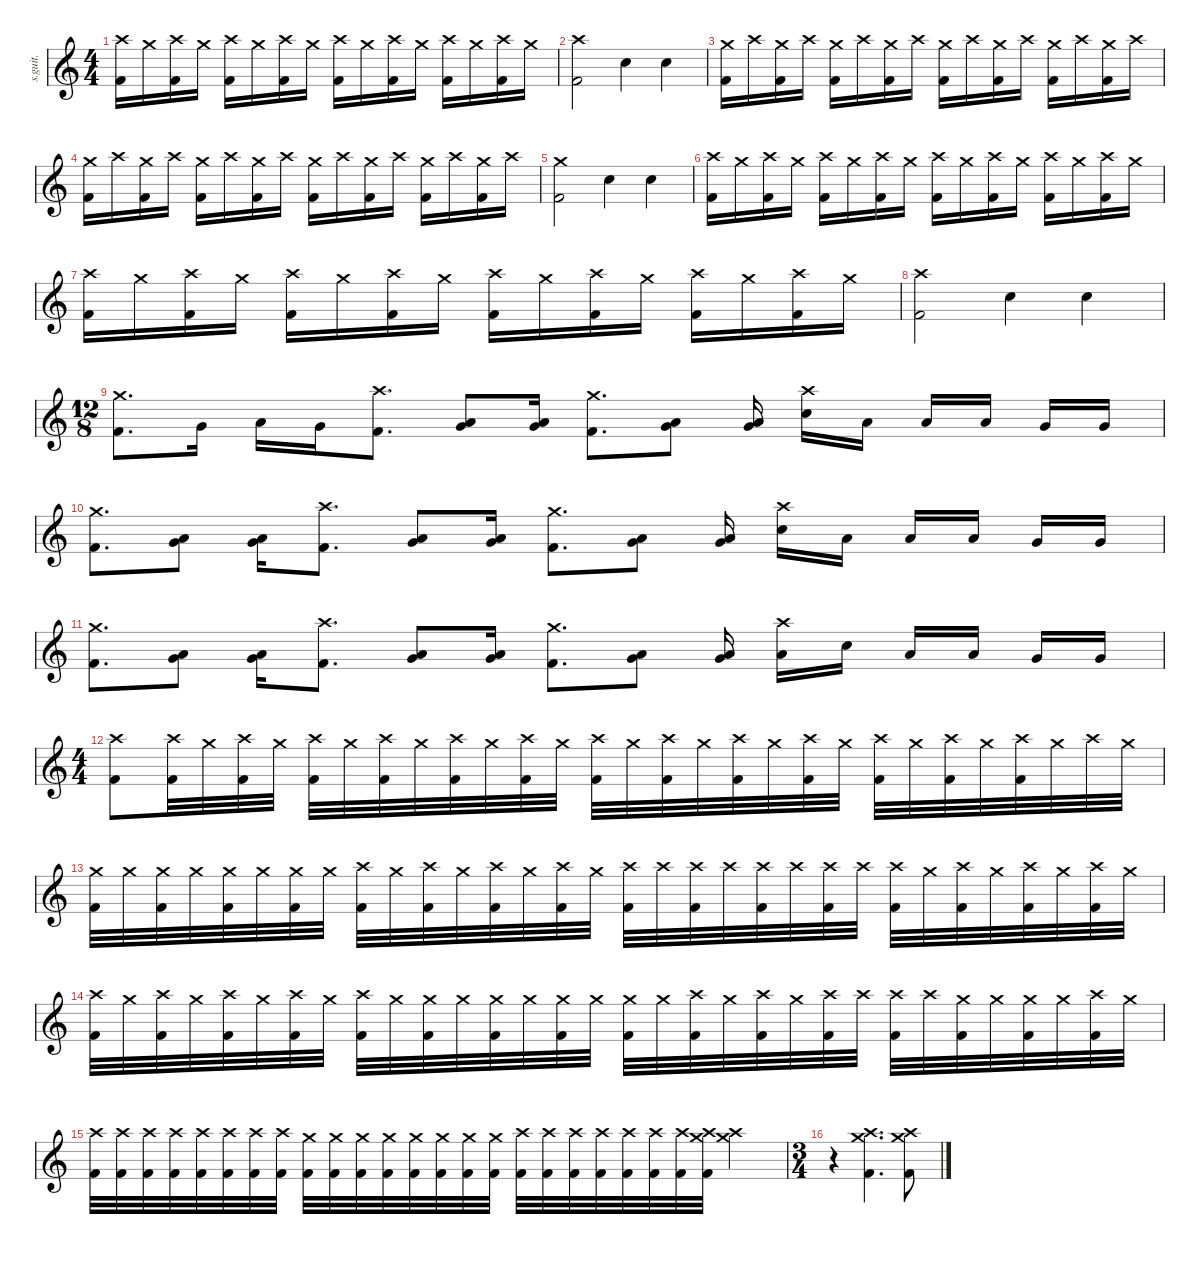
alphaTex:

\defaultSystemsLayout 4
\hideDynamics
\bracketExtendMode nobrackets
\track ("Bob Burns (Drums)" "s.guit.") {instrument percussion}
\staff {score}
\articulation defaults
\ts (4 4)
\tempo (120 hide)
\clef g2
\ks c
("Crash high (hit)" "Kick (hit) 2").16{lyrics (0 "") lyrics (1 "") lyrics (2 "") lyrics (3 "") lyrics (4 "") dy f} "Crash medium (hit)".16{lyrics (0 "") lyrics (1 "") lyrics (2 "") lyrics (3 "") lyrics (4 "")} ("Crash high (hit)" "Kick (hit) 2").16{lyrics (0 "") lyrics (1 "") lyrics (2 "") lyrics (3 "") lyrics (4 "")} "Crash medium (hit)".16{lyrics (0 "") lyrics (1 "") lyrics (2 "") lyrics (3 "") lyrics (4 "")} ("Crash high (hit)" "Kick (hit) 2").16{lyrics (0 "") lyrics (1 "") lyrics (2 "") lyrics (3 "") lyrics (4 "")} "Crash medium (hit)".16{lyrics (0 "") lyrics (1 "") lyrics (2 "") lyrics (3 "") lyrics (4 "")} ("Crash high (hit)" "Kick (hit) 2").16{lyrics (0 "") lyrics (1 "") lyrics (2 "") lyrics (3 "") lyrics (4 "")} "Crash medium (hit)".16{lyrics (0 "") lyrics (1 "") lyrics (2 "") lyrics (3 "") lyrics (4 "")} ("Crash high (hit)" "Kick (hit) 2").16{lyrics (0 "") lyrics (1 "") lyrics (2 "") lyrics (3 "") lyrics (4 "")} "Crash medium (hit)".16{lyrics (0 "") lyrics (1 "") lyrics (2 "") lyrics (3 "") lyrics (4 "")} ("Crash high (hit)" "Kick (hit) 2").16{lyrics (0 "") lyrics (1 "") lyrics (2 "") lyrics (3 "") lyrics (4 "")} "Crash medium (hit)".16{lyrics (0 "") lyrics (1 "") lyrics (2 "") lyrics (3 "") lyrics (4 "")} ("Crash high (hit)" "Kick (hit) 2").16{lyrics (0 "") lyrics (1 "") lyrics (2 "") lyrics (3 "") lyrics (4 "")} "Crash medium (hit)".16{lyrics (0 "") lyrics (1 "") lyrics (2 "") lyrics (3 "") lyrics (4 "")} ("Crash high (hit)" "Kick (hit) 2").16{lyrics (0 "") lyrics (1 "") lyrics (2 "") lyrics (3 "") lyrics (4 "")} "Crash medium (hit)".16{lyrics (0 "") lyrics (1 "") lyrics (2 "") lyrics (3 "") lyrics (4 "")} |
("Crash high (hit)" "Kick (hit) 2").2{lyrics (0 "") lyrics (1 "") lyrics (2 "") lyrics (3 "") lyrics (4 "")} "Electric Snare (hit)".4{lyrics (0 "") lyrics (1 "") lyrics (2 "") lyrics (3 "") lyrics (4 "")} "Electric Snare (hit)".4{lyrics (0 "") lyrics (1 "") lyrics (2 "") lyrics (3 "") lyrics (4 "")} |
("Crash medium (hit)" "Kick (hit) 2").16{lyrics (0 "") lyrics (1 "") lyrics (2 "") lyrics (3 "") lyrics (4 "")} "Crash high (hit)".16{lyrics (0 "") lyrics (1 "") lyrics (2 "") lyrics (3 "") lyrics (4 "")} ("Crash medium (hit)" "Kick (hit) 2").16{lyrics (0 "") lyrics (1 "") lyrics (2 "") lyrics (3 "") lyrics (4 "")} "Crash high (hit)".16{lyrics (0 "") lyrics (1 "") lyrics (2 "") lyrics (3 "") lyrics (4 "")} ("Crash medium (hit)" "Kick (hit) 2").16{lyrics (0 "") lyrics (1 "") lyrics (2 "") lyrics (3 "") lyrics (4 "")} "Crash high (hit)".16{lyrics (0 "") lyrics (1 "") lyrics (2 "") lyrics (3 "") lyrics (4 "")} ("Crash medium (hit)" "Kick (hit) 2").16{lyrics (0 "") lyrics (1 "") lyrics (2 "") lyrics (3 "") lyrics (4 "")} "Crash high (hit)".16{lyrics (0 "") lyrics (1 "") lyrics (2 "") lyrics (3 "") lyrics (4 "")} ("Crash medium (hit)" "Kick (hit) 2").16{lyrics (0 "") lyrics (1 "") lyrics (2 "") lyrics (3 "") lyrics (4 "")} "Crash high (hit)".16{lyrics (0 "") lyrics (1 "") lyrics (2 "") lyrics (3 "") lyrics (4 "")} ("Crash medium (hit)" "Kick (hit) 2").16{lyrics (0 "") lyrics (1 "") lyrics (2 "") lyrics (3 "") lyrics (4 "")} "Crash high (hit)".16{lyrics (0 "") lyrics (1 "") lyrics (2 "") lyrics (3 "") lyrics (4 "")} ("Crash medium (hit)" "Kick (hit) 2").16{lyrics (0 "") lyrics (1 "") lyrics (2 "") lyrics (3 "") lyrics (4 "")} "Crash high (hit)".16{lyrics (0 "") lyrics (1 "") lyrics (2 "") lyrics (3 "") lyrics (4 "")} ("Crash medium (hit)" "Kick (hit) 2").16{lyrics (0 "") lyrics (1 "") lyrics (2 "") lyrics (3 "") lyrics (4 "")} "Crash high (hit)".16{lyrics (0 "") lyrics (1 "") lyrics (2 "") lyrics (3 "") lyrics (4 "")} |
("Crash medium (hit)" "Kick (hit) 2").16{lyrics (0 "") lyrics (1 "") lyrics (2 "") lyrics (3 "") lyrics (4 "")} "Crash high (hit)".16{lyrics (0 "") lyrics (1 "") lyrics (2 "") lyrics (3 "") lyrics (4 "")} ("Crash medium (hit)" "Kick (hit) 2").16{lyrics (0 "") lyrics (1 "") lyrics (2 "") lyrics (3 "") lyrics (4 "")} "Crash high (hit)".16{lyrics (0 "") lyrics (1 "") lyrics (2 "") lyrics (3 "") lyrics (4 "")} ("Crash medium (hit)" "Kick (hit) 2").16{lyrics (0 "") lyrics (1 "") lyrics (2 "") lyrics (3 "") lyrics (4 "")} "Crash high (hit)".16{lyrics (0 "") lyrics (1 "") lyrics (2 "") lyrics (3 "") lyrics (4 "")} ("Crash medium (hit)" "Kick (hit) 2").16{lyrics (0 "") lyrics (1 "") lyrics (2 "") lyrics (3 "") lyrics (4 "")} "Crash high (hit)".16{lyrics (0 "") lyrics (1 "") lyrics (2 "") lyrics (3 "") lyrics (4 "")} ("Crash medium (hit)" "Kick (hit) 2").16{lyrics (0 "") lyrics (1 "") lyrics (2 "") lyrics (3 "") lyrics (4 "")} "Crash high (hit)".16{lyrics (0 "") lyrics (1 "") lyrics (2 "") lyrics (3 "") lyrics (4 "")} ("Crash medium (hit)" "Kick (hit) 2").16{lyrics (0 "") lyrics (1 "") lyrics (2 "") lyrics (3 "") lyrics (4 "")} "Crash high (hit)".16{lyrics (0 "") lyrics (1 "") lyrics (2 "") lyrics (3 "") lyrics (4 "")} ("Crash medium (hit)" "Kick (hit) 2").16{lyrics (0 "") lyrics (1 "") lyrics (2 "") lyrics (3 "") lyrics (4 "")} "Crash high (hit)".16{lyrics (0 "") lyrics (1 "") lyrics (2 "") lyrics (3 "") lyrics (4 "")} ("Crash medium (hit)" "Kick (hit) 2").16{lyrics (0 "") lyrics (1 "") lyrics (2 "") lyrics (3 "") lyrics (4 "")} "Crash high (hit)".16{lyrics (0 "") lyrics (1 "") lyrics (2 "") lyrics (3 "") lyrics (4 "")} |
("Crash medium (hit)" "Kick (hit) 2").2{lyrics (0 "") lyrics (1 "") lyrics (2 "") lyrics (3 "") lyrics (4 "")} "Electric Snare (hit)".4{lyrics (0 "") lyrics (1 "") lyrics (2 "") lyrics (3 "") lyrics (4 "")} "Electric Snare (hit)".4{lyrics (0 "") lyrics (1 "") lyrics (2 "") lyrics (3 "") lyrics (4 "")} |
("Crash high (hit)" "Kick (hit) 2").16{lyrics (0 "") lyrics (1 "") lyrics (2 "") lyrics (3 "") lyrics (4 "")} "Crash medium (hit)".16{lyrics (0 "") lyrics (1 "") lyrics (2 "") lyrics (3 "") lyrics (4 "")} ("Crash high (hit)" "Kick (hit) 2").16{lyrics (0 "") lyrics (1 "") lyrics (2 "") lyrics (3 "") lyrics (4 "")} "Crash medium (hit)".16{lyrics (0 "") lyrics (1 "") lyrics (2 "") lyrics (3 "") lyrics (4 "")} ("Crash high (hit)" "Kick (hit) 2").16{lyrics (0 "") lyrics (1 "") lyrics (2 "") lyrics (3 "") lyrics (4 "")} "Crash medium (hit)".16{lyrics (0 "") lyrics (1 "") lyrics (2 "") lyrics (3 "") lyrics (4 "")} ("Crash high (hit)" "Kick (hit) 2").16{lyrics (0 "") lyrics (1 "") lyrics (2 "") lyrics (3 "") lyrics (4 "")} "Crash medium (hit)".16{lyrics (0 "") lyrics (1 "") lyrics (2 "") lyrics (3 "") lyrics (4 "")} ("Crash high (hit)" "Kick (hit) 2").16{lyrics (0 "") lyrics (1 "") lyrics (2 "") lyrics (3 "") lyrics (4 "")} "Crash medium (hit)".16{lyrics (0 "") lyrics (1 "") lyrics (2 "") lyrics (3 "") lyrics (4 "")} ("Crash high (hit)" "Kick (hit) 2").16{lyrics (0 "") lyrics (1 "") lyrics (2 "") lyrics (3 "") lyrics (4 "")} "Crash medium (hit)".16{lyrics (0 "") lyrics (1 "") lyrics (2 "") lyrics (3 "") lyrics (4 "")} ("Crash high (hit)" "Kick (hit) 2").16{lyrics (0 "") lyrics (1 "") lyrics (2 "") lyrics (3 "") lyrics (4 "")} "Crash medium (hit)".16{lyrics (0 "") lyrics (1 "") lyrics (2 "") lyrics (3 "") lyrics (4 "")} ("Crash high (hit)" "Kick (hit) 2").16{lyrics (0 "") lyrics (1 "") lyrics (2 "") lyrics (3 "") lyrics (4 "")} "Crash medium (hit)".16{lyrics (0 "") lyrics (1 "") lyrics (2 "") lyrics (3 "") lyrics (4 "")} |
("Crash high (hit)" "Kick (hit) 2").16{lyrics (0 "") lyrics (1 "") lyrics (2 "") lyrics (3 "") lyrics (4 "")} "Crash medium (hit)".16{lyrics (0 "") lyrics (1 "") lyrics (2 "") lyrics (3 "") lyrics (4 "")} ("Crash high (hit)" "Kick (hit) 2").16{lyrics (0 "") lyrics (1 "") lyrics (2 "") lyrics (3 "") lyrics (4 "")} "Crash medium (hit)".16{lyrics (0 "") lyrics (1 "") lyrics (2 "") lyrics (3 "") lyrics (4 "")} ("Crash high (hit)" "Kick (hit) 2").16{lyrics (0 "") lyrics (1 "") lyrics (2 "") lyrics (3 "") lyrics (4 "")} "Crash medium (hit)".16{lyrics (0 "") lyrics (1 "") lyrics (2 "") lyrics (3 "") lyrics (4 "")} ("Crash high (hit)" "Kick (hit) 2").16{lyrics (0 "") lyrics (1 "") lyrics (2 "") lyrics (3 "") lyrics (4 "")} "Crash medium (hit)".16{lyrics (0 "") lyrics (1 "") lyrics (2 "") lyrics (3 "") lyrics (4 "")} ("Crash high (hit)" "Kick (hit) 2").16{lyrics (0 "") lyrics (1 "") lyrics (2 "") lyrics (3 "") lyrics (4 "")} "Crash medium (hit)".16{lyrics (0 "") lyrics (1 "") lyrics (2 "") lyrics (3 "") lyrics (4 "")} ("Crash high (hit)" "Kick (hit) 2").16{lyrics (0 "") lyrics (1 "") lyrics (2 "") lyrics (3 "") lyrics (4 "")} "Crash medium (hit)".16{lyrics (0 "") lyrics (1 "") lyrics (2 "") lyrics (3 "") lyrics (4 "")} ("Crash high (hit)" "Kick (hit) 2").16{lyrics (0 "") lyrics (1 "") lyrics (2 "") lyrics (3 "") lyrics (4 "")} "Crash medium (hit)".16{lyrics (0 "") lyrics (1 "") lyrics (2 "") lyrics (3 "") lyrics (4 "")} ("Crash high (hit)" "Kick (hit) 2").16{lyrics (0 "") lyrics (1 "") lyrics (2 "") lyrics (3 "") lyrics (4 "")} "Crash medium (hit)".16{lyrics (0 "") lyrics (1 "") lyrics (2 "") lyrics (3 "") lyrics (4 "")} |
("Crash high (hit)" "Kick (hit) 2").2{lyrics (0 "") lyrics (1 "") lyrics (2 "") lyrics (3 "") lyrics (4 "")} "Electric Snare (hit)".4{lyrics (0 "") lyrics (1 "") lyrics (2 "") lyrics (3 "") lyrics (4 "")} "Electric Snare (hit)".4{lyrics (0 "") lyrics (1 "") lyrics (2 "") lyrics (3 "") lyrics (4 "")} |
\ts (12 8)
\beaming (8 2 2 2 2)
\tempo (104 hide)
("Crash medium (hit)" "Kick (hit) 2").8{d lyrics (0 "") lyrics (1 "") lyrics (2 "") lyrics (3 "") lyrics (4 "")} "Very Low Tom (hit)".16{lyrics (0 "") lyrics (1 "") lyrics (2 "") lyrics (3 "") lyrics (4 "")} "Low Tom (hit)".16{lyrics (0 "") lyrics (1 "") lyrics (2 "") lyrics (3 "") lyrics (4 "")} "Very Low Tom (hit)".16{lyrics (0 "") lyrics (1 "") lyrics (2 "") lyrics (3 "") lyrics (4 "")} ("Crash high (hit)" "Kick (hit) 2").8{d lyrics (0 "") lyrics (1 "") lyrics (2 "") lyrics (3 "") lyrics (4 "")} ("Low Tom (hit)" "Very Low Tom (hit)").8{lyrics (0 "") lyrics (1 "") lyrics (2 "") lyrics (3 "") lyrics (4 "")} ("Low Tom (hit)" "Very Low Tom (hit)").16{lyrics (0 "") lyrics (1 "") lyrics (2 "") lyrics (3 "") lyrics (4 "")} ("Crash medium (hit)" "Kick (hit) 2").8{d lyrics (0 "") lyrics (1 "") lyrics (2 "") lyrics (3 "") lyrics (4 "")} ("Low Tom (hit)" "Very Low Tom (hit)").8{lyrics (0 "") lyrics (1 "") lyrics (2 "") lyrics (3 "") lyrics (4 "")} ("Low Tom (hit)" "Very Low Tom (hit)").16{lyrics (0 "") lyrics (1 "") lyrics (2 "") lyrics (3 "") lyrics (4 "")} ("Crash high (hit)" "Electric Snare (hit)").16{lyrics (0 "") lyrics (1 "") lyrics (2 "") lyrics (3 "") lyrics (4 "")} "Low Tom (hit)".16{lyrics (0 "") lyrics (1 "") lyrics (2 "") lyrics (3 "") lyrics (4 "")} "Low Tom (hit)".16{lyrics (0 "") lyrics (1 "") lyrics (2 "") lyrics (3 "") lyrics (4 "")} "Low Tom (hit)".16{lyrics (0 "") lyrics (1 "") lyrics (2 "") lyrics (3 "") lyrics (4 "")} "Very Low Tom (hit)".16{lyrics (0 "") lyrics (1 "") lyrics (2 "") lyrics (3 "") lyrics (4 "")} "Very Low Tom (hit)".16{lyrics (0 "") lyrics (1 "") lyrics (2 "") lyrics (3 "") lyrics (4 "")} |
("Crash medium (hit)" "Kick (hit) 2").8{d lyrics (0 "") lyrics (1 "") lyrics (2 "") lyrics (3 "") lyrics (4 "")} ("Low Tom (hit)" "Very Low Tom (hit)").8{lyrics (0 "") lyrics (1 "") lyrics (2 "") lyrics (3 "") lyrics (4 "")} ("Low Tom (hit)" "Very Low Tom (hit)").16{lyrics (0 "") lyrics (1 "") lyrics (2 "") lyrics (3 "") lyrics (4 "")} ("Crash high (hit)" "Kick (hit) 2").8{d lyrics (0 "") lyrics (1 "") lyrics (2 "") lyrics (3 "") lyrics (4 "")} ("Low Tom (hit)" "Very Low Tom (hit)").8{lyrics (0 "") lyrics (1 "") lyrics (2 "") lyrics (3 "") lyrics (4 "")} ("Low Tom (hit)" "Very Low Tom (hit)").16{lyrics (0 "") lyrics (1 "") lyrics (2 "") lyrics (3 "") lyrics (4 "")} ("Crash medium (hit)" "Kick (hit) 2").8{d lyrics (0 "") lyrics (1 "") lyrics (2 "") lyrics (3 "") lyrics (4 "")} ("Low Tom (hit)" "Very Low Tom (hit)").8{lyrics (0 "") lyrics (1 "") lyrics (2 "") lyrics (3 "") lyrics (4 "")} ("Low Tom (hit)" "Very Low Tom (hit)").16{lyrics (0 "") lyrics (1 "") lyrics (2 "") lyrics (3 "") lyrics (4 "")} ("Crash high (hit)" "Electric Snare (hit)").16{lyrics (0 "") lyrics (1 "") lyrics (2 "") lyrics (3 "") lyrics (4 "")} "Low Tom (hit)".16{lyrics (0 "") lyrics (1 "") lyrics (2 "") lyrics (3 "") lyrics (4 "")} "Low Tom (hit)".16{lyrics (0 "") lyrics (1 "") lyrics (2 "") lyrics (3 "") lyrics (4 "")} "Low Tom (hit)".16{lyrics (0 "") lyrics (1 "") lyrics (2 "") lyrics (3 "") lyrics (4 "")} "Very Low Tom (hit)".16{lyrics (0 "") lyrics (1 "") lyrics (2 "") lyrics (3 "") lyrics (4 "")} "Very Low Tom (hit)".16{lyrics (0 "") lyrics (1 "") lyrics (2 "") lyrics (3 "") lyrics (4 "")} |
("Crash medium (hit)" "Kick (hit) 2").8{d lyrics (0 "") lyrics (1 "") lyrics (2 "") lyrics (3 "") lyrics (4 "")} ("Low Tom (hit)" "Very Low Tom (hit)").8{lyrics (0 "") lyrics (1 "") lyrics (2 "") lyrics (3 "") lyrics (4 "")} ("Low Tom (hit)" "Very Low Tom (hit)").16{lyrics (0 "") lyrics (1 "") lyrics (2 "") lyrics (3 "") lyrics (4 "")} ("Crash high (hit)" "Kick (hit) 2").8{d lyrics (0 "") lyrics (1 "") lyrics (2 "") lyrics (3 "") lyrics (4 "")} ("Low Tom (hit)" "Very Low Tom (hit)").8{lyrics (0 "") lyrics (1 "") lyrics (2 "") lyrics (3 "") lyrics (4 "")} ("Low Tom (hit)" "Very Low Tom (hit)").16{lyrics (0 "") lyrics (1 "") lyrics (2 "") lyrics (3 "") lyrics (4 "")} ("Crash medium (hit)" "Kick (hit) 2").8{d lyrics (0 "") lyrics (1 "") lyrics (2 "") lyrics (3 "") lyrics (4 "")} ("Low Tom (hit)" "Very Low Tom (hit)").8{lyrics (0 "") lyrics (1 "") lyrics (2 "") lyrics (3 "") lyrics (4 "")} ("Low Tom (hit)" "Very Low Tom (hit)").16{lyrics (0 "") lyrics (1 "") lyrics (2 "") lyrics (3 "") lyrics (4 "")} ("Crash high (hit)" "Low Tom (hit)").16{lyrics (0 "") lyrics (1 "") lyrics (2 "") lyrics (3 "") lyrics (4 "")} "Electric Snare (hit)".16{lyrics (0 "") lyrics (1 "") lyrics (2 "") lyrics (3 "") lyrics (4 "")} "Low Tom (hit)".16{lyrics (0 "") lyrics (1 "") lyrics (2 "") lyrics (3 "") lyrics (4 "")} "Low Tom (hit)".16{lyrics (0 "") lyrics (1 "") lyrics (2 "") lyrics (3 "") lyrics (4 "")} "Very Low Tom (hit)".16{lyrics (0 "") lyrics (1 "") lyrics (2 "") lyrics (3 "") lyrics (4 "")} "Very Low Tom (hit)".16{lyrics (0 "") lyrics (1 "") lyrics (2 "") lyrics (3 "") lyrics (4 "")} |
\ts (4 4)
\beaming (8 2 2 2 2)
\tempo (80 hide)
("Crash high (hit)" "Kick (hit) 2").8{lyrics (0 "") lyrics (1 "") lyrics (2 "") lyrics (3 "") lyrics (4 "")} ("Crash high (hit)" "Kick (hit) 2").32{lyrics (0 "") lyrics (1 "") lyrics (2 "") lyrics (3 "") lyrics (4 "")} "Crash medium (hit)".32{lyrics (0 "") lyrics (1 "") lyrics (2 "") lyrics (3 "") lyrics (4 "")} ("Crash high (hit)" "Kick (hit) 2").32{lyrics (0 "") lyrics (1 "") lyrics (2 "") lyrics (3 "") lyrics (4 "")} "Crash medium (hit)".32{lyrics (0 "") lyrics (1 "") lyrics (2 "") lyrics (3 "") lyrics (4 "")} ("Crash high (hit)" "Kick (hit) 2").32{lyrics (0 "") lyrics (1 "") lyrics (2 "") lyrics (3 "") lyrics (4 "")} "Crash medium (hit)".32{lyrics (0 "") lyrics (1 "") lyrics (2 "") lyrics (3 "") lyrics (4 "")} ("Crash high (hit)" "Kick (hit) 2").32{lyrics (0 "") lyrics (1 "") lyrics (2 "") lyrics (3 "") lyrics (4 "")} "Crash medium (hit)".32{lyrics (0 "") lyrics (1 "") lyrics (2 "") lyrics (3 "") lyrics (4 "")} ("Crash high (hit)" "Kick (hit) 2").32{lyrics (0 "") lyrics (1 "") lyrics (2 "") lyrics (3 "") lyrics (4 "")} "Crash medium (hit)".32{lyrics (0 "") lyrics (1 "") lyrics (2 "") lyrics (3 "") lyrics (4 "")} ("Crash high (hit)" "Kick (hit) 2").32{lyrics (0 "") lyrics (1 "") lyrics (2 "") lyrics (3 "") lyrics (4 "")} "Crash medium (hit)".32{lyrics (0 "") lyrics (1 "") lyrics (2 "") lyrics (3 "") lyrics (4 "")} ("Crash high (hit)" "Kick (hit) 2").32{lyrics (0 "") lyrics (1 "") lyrics (2 "") lyrics (3 "") lyrics (4 "")} "Crash medium (hit)".32{lyrics (0 "") lyrics (1 "") lyrics (2 "") lyrics (3 "") lyrics (4 "")} ("Crash high (hit)" "Kick (hit) 2").32{lyrics (0 "") lyrics (1 "") lyrics (2 "") lyrics (3 "") lyrics (4 "")} "Crash medium (hit)".32{lyrics (0 "") lyrics (1 "") lyrics (2 "") lyrics (3 "") lyrics (4 "")} ("Crash high (hit)" "Kick (hit) 2").32{lyrics (0 "") lyrics (1 "") lyrics (2 "") lyrics (3 "") lyrics (4 "")} "Crash medium (hit)".32{lyrics (0 "") lyrics (1 "") lyrics (2 "") lyrics (3 "") lyrics (4 "")} ("Crash high (hit)" "Kick (hit) 2").32{lyrics (0 "") lyrics (1 "") lyrics (2 "") lyrics (3 "") lyrics (4 "")} "Crash medium (hit)".32{lyrics (0 "") lyrics (1 "") lyrics (2 "") lyrics (3 "") lyrics (4 "")} ("Crash high (hit)" "Kick (hit) 2").32{lyrics (0 "") lyrics (1 "") lyrics (2 "") lyrics (3 "") lyrics (4 "")} "Crash medium (hit)".32{lyrics (0 "") lyrics (1 "") lyrics (2 "") lyrics (3 "") lyrics (4 "")} ("Crash high (hit)" "Kick (hit) 2").32{lyrics (0 "") lyrics (1 "") lyrics (2 "") lyrics (3 "") lyrics (4 "")} "Crash medium (hit)".32{lyrics (0 "") lyrics (1 "") lyrics (2 "") lyrics (3 "") lyrics (4 "")} ("Crash high (hit)" "Kick (hit) 2").32{lyrics (0 "") lyrics (1 "") lyrics (2 "") lyrics (3 "") lyrics (4 "")} "Crash medium (hit)".32{lyrics (0 "") lyrics (1 "") lyrics (2 "") lyrics (3 "") lyrics (4 "")} "Crash high (hit)".32{lyrics (0 "") lyrics (1 "") lyrics (2 "") lyrics (3 "") lyrics (4 "")} "Crash medium (hit)".32{lyrics (0 "") lyrics (1 "") lyrics (2 "") lyrics (3 "") lyrics (4 "")} |
("Crash medium (hit)" "Kick (hit) 2").32{lyrics (0 "") lyrics (1 "") lyrics (2 "") lyrics (3 "") lyrics (4 "")} "Crash medium (hit)".32{lyrics (0 "") lyrics (1 "") lyrics (2 "") lyrics (3 "") lyrics (4 "")} ("Crash medium (hit)" "Kick (hit) 2").32{lyrics (0 "") lyrics (1 "") lyrics (2 "") lyrics (3 "") lyrics (4 "")} "Crash medium (hit)".32{lyrics (0 "") lyrics (1 "") lyrics (2 "") lyrics (3 "") lyrics (4 "")} ("Crash medium (hit)" "Kick (hit) 2").32{lyrics (0 "") lyrics (1 "") lyrics (2 "") lyrics (3 "") lyrics (4 "")} "Crash medium (hit)".32{lyrics (0 "") lyrics (1 "") lyrics (2 "") lyrics (3 "") lyrics (4 "")} ("Crash medium (hit)" "Kick (hit) 2").32{lyrics (0 "") lyrics (1 "") lyrics (2 "") lyrics (3 "") lyrics (4 "")} "Crash medium (hit)".32{lyrics (0 "") lyrics (1 "") lyrics (2 "") lyrics (3 "") lyrics (4 "")} ("Crash high (hit)" "Kick (hit) 2").32{lyrics (0 "") lyrics (1 "") lyrics (2 "") lyrics (3 "") lyrics (4 "")} "Crash medium (hit)".32{lyrics (0 "") lyrics (1 "") lyrics (2 "") lyrics (3 "") lyrics (4 "")} ("Crash high (hit)" "Kick (hit) 2").32{lyrics (0 "") lyrics (1 "") lyrics (2 "") lyrics (3 "") lyrics (4 "")} "Crash medium (hit)".32{lyrics (0 "") lyrics (1 "") lyrics (2 "") lyrics (3 "") lyrics (4 "")} ("Crash high (hit)" "Kick (hit) 2").32{lyrics (0 "") lyrics (1 "") lyrics (2 "") lyrics (3 "") lyrics (4 "")} "Crash medium (hit)".32{lyrics (0 "") lyrics (1 "") lyrics (2 "") lyrics (3 "") lyrics (4 "")} ("Crash high (hit)" "Kick (hit) 2").32{lyrics (0 "") lyrics (1 "") lyrics (2 "") lyrics (3 "") lyrics (4 "")} "Crash medium (hit)".32{lyrics (0 "") lyrics (1 "") lyrics (2 "") lyrics (3 "") lyrics (4 "")} ("Crash high (hit)" "Kick (hit) 2").32{lyrics (0 "") lyrics (1 "") lyrics (2 "") lyrics (3 "") lyrics (4 "")} "Crash high (hit)".32{lyrics (0 "") lyrics (1 "") lyrics (2 "") lyrics (3 "") lyrics (4 "")} ("Crash high (hit)" "Kick (hit) 2").32{lyrics (0 "") lyrics (1 "") lyrics (2 "") lyrics (3 "") lyrics (4 "")} "Crash high (hit)".32{lyrics (0 "") lyrics (1 "") lyrics (2 "") lyrics (3 "") lyrics (4 "")} ("Crash high (hit)" "Kick (hit) 2").32{lyrics (0 "") lyrics (1 "") lyrics (2 "") lyrics (3 "") lyrics (4 "")} "Crash high (hit)".32{lyrics (0 "") lyrics (1 "") lyrics (2 "") lyrics (3 "") lyrics (4 "")} ("Crash high (hit)" "Kick (hit) 2").32{lyrics (0 "") lyrics (1 "") lyrics (2 "") lyrics (3 "") lyrics (4 "")} "Crash high (hit)".32{lyrics (0 "") lyrics (1 "") lyrics (2 "") lyrics (3 "") lyrics (4 "")} ("Crash high (hit)" "Kick (hit) 2").32{lyrics (0 "") lyrics (1 "") lyrics (2 "") lyrics (3 "") lyrics (4 "")} "Crash medium (hit)".32{lyrics (0 "") lyrics (1 "") lyrics (2 "") lyrics (3 "") lyrics (4 "")} ("Crash high (hit)" "Kick (hit) 2").32{lyrics (0 "") lyrics (1 "") lyrics (2 "") lyrics (3 "") lyrics (4 "")} "Crash medium (hit)".32{lyrics (0 "") lyrics (1 "") lyrics (2 "") lyrics (3 "") lyrics (4 "")} ("Crash high (hit)" "Kick (hit) 2").32{lyrics (0 "") lyrics (1 "") lyrics (2 "") lyrics (3 "") lyrics (4 "")} "Crash medium (hit)".32{lyrics (0 "") lyrics (1 "") lyrics (2 "") lyrics (3 "") lyrics (4 "")} ("Crash high (hit)" "Kick (hit) 2").32{lyrics (0 "") lyrics (1 "") lyrics (2 "") lyrics (3 "") lyrics (4 "")} "Crash medium (hit)".32{lyrics (0 "") lyrics (1 "") lyrics (2 "") lyrics (3 "") lyrics (4 "")} |
("Crash high (hit)" "Kick (hit) 2").32{lyrics (0 "") lyrics (1 "") lyrics (2 "") lyrics (3 "") lyrics (4 "")} "Crash medium (hit)".32{lyrics (0 "") lyrics (1 "") lyrics (2 "") lyrics (3 "") lyrics (4 "")} ("Crash high (hit)" "Kick (hit) 2").32{lyrics (0 "") lyrics (1 "") lyrics (2 "") lyrics (3 "") lyrics (4 "")} "Crash medium (hit)".32{lyrics (0 "") lyrics (1 "") lyrics (2 "") lyrics (3 "") lyrics (4 "")} ("Crash high (hit)" "Kick (hit) 2").32{lyrics (0 "") lyrics (1 "") lyrics (2 "") lyrics (3 "") lyrics (4 "")} "Crash medium (hit)".32{lyrics (0 "") lyrics (1 "") lyrics (2 "") lyrics (3 "") lyrics (4 "")} ("Crash high (hit)" "Kick (hit) 2").32{lyrics (0 "") lyrics (1 "") lyrics (2 "") lyrics (3 "") lyrics (4 "")} "Crash medium (hit)".32{lyrics (0 "") lyrics (1 "") lyrics (2 "") lyrics (3 "") lyrics (4 "")} ("Crash high (hit)" "Kick (hit) 2").32{lyrics (0 "") lyrics (1 "") lyrics (2 "") lyrics (3 "") lyrics (4 "")} "Crash medium (hit)".32{lyrics (0 "") lyrics (1 "") lyrics (2 "") lyrics (3 "") lyrics (4 "")} ("Crash medium (hit)" "Kick (hit) 2").32{lyrics (0 "") lyrics (1 "") lyrics (2 "") lyrics (3 "") lyrics (4 "")} "Crash medium (hit)".32{lyrics (0 "") lyrics (1 "") lyrics (2 "") lyrics (3 "") lyrics (4 "")} ("Crash medium (hit)" "Kick (hit) 2").32{lyrics (0 "") lyrics (1 "") lyrics (2 "") lyrics (3 "") lyrics (4 "")} "Crash medium (hit)".32{lyrics (0 "") lyrics (1 "") lyrics (2 "") lyrics (3 "") lyrics (4 "")} ("Crash medium (hit)" "Kick (hit) 2").32{lyrics (0 "") lyrics (1 "") lyrics (2 "") lyrics (3 "") lyrics (4 "")} "Crash medium (hit)".32{lyrics (0 "") lyrics (1 "") lyrics (2 "") lyrics (3 "") lyrics (4 "")} ("Crash medium (hit)" "Kick (hit) 2").32{lyrics (0 "") lyrics (1 "") lyrics (2 "") lyrics (3 "") lyrics (4 "")} "Crash medium (hit)".32{lyrics (0 "") lyrics (1 "") lyrics (2 "") lyrics (3 "") lyrics (4 "")} ("Crash high (hit)" "Kick (hit) 2").32{lyrics (0 "") lyrics (1 "") lyrics (2 "") lyrics (3 "") lyrics (4 "")} "Crash medium (hit)".32{lyrics (0 "") lyrics (1 "") lyrics (2 "") lyrics (3 "") lyrics (4 "")} ("Crash high (hit)" "Kick (hit) 2").32{lyrics (0 "") lyrics (1 "") lyrics (2 "") lyrics (3 "") lyrics (4 "")} "Crash medium (hit)".32{lyrics (0 "") lyrics (1 "") lyrics (2 "") lyrics (3 "") lyrics (4 "")} ("Crash high (hit)" "Kick (hit) 2").32{lyrics (0 "") lyrics (1 "") lyrics (2 "") lyrics (3 "") lyrics (4 "")} "Crash high (hit)".32{lyrics (0 "") lyrics (1 "") lyrics (2 "") lyrics (3 "") lyrics (4 "")} ("Crash high (hit)" "Kick (hit) 2").32{lyrics (0 "") lyrics (1 "") lyrics (2 "") lyrics (3 "") lyrics (4 "")} "Crash high (hit)".32{lyrics (0 "") lyrics (1 "") lyrics (2 "") lyrics (3 "") lyrics (4 "")} ("Crash medium (hit)" "Kick (hit) 2").32{lyrics (0 "") lyrics (1 "") lyrics (2 "") lyrics (3 "") lyrics (4 "")} "Crash medium (hit)".32{lyrics (0 "") lyrics (1 "") lyrics (2 "") lyrics (3 "") lyrics (4 "")} ("Crash medium (hit)" "Kick (hit) 2").32{lyrics (0 "") lyrics (1 "") lyrics (2 "") lyrics (3 "") lyrics (4 "")} "Crash medium (hit)".32{lyrics (0 "") lyrics (1 "") lyrics (2 "") lyrics (3 "") lyrics (4 "")} ("Crash high (hit)" "Kick (hit) 2").32{lyrics (0 "") lyrics (1 "") lyrics (2 "") lyrics (3 "") lyrics (4 "")} "Crash medium (hit)".32{lyrics (0 "") lyrics (1 "") lyrics (2 "") lyrics (3 "") lyrics (4 "")} |
("Crash high (hit)" "Kick (hit) 2").32{lyrics (0 "") lyrics (1 "") lyrics (2 "") lyrics (3 "") lyrics (4 "")} ("Crash high (hit)" "Kick (hit) 2").32{lyrics (0 "") lyrics (1 "") lyrics (2 "") lyrics (3 "") lyrics (4 "")} ("Crash high (hit)" "Kick (hit) 2").32{lyrics (0 "") lyrics (1 "") lyrics (2 "") lyrics (3 "") lyrics (4 "")} ("Crash high (hit)" "Kick (hit) 2").32{lyrics (0 "") lyrics (1 "") lyrics (2 "") lyrics (3 "") lyrics (4 "")} ("Crash high (hit)" "Kick (hit) 2").32{lyrics (0 "") lyrics (1 "") lyrics (2 "") lyrics (3 "") lyrics (4 "")} ("Crash high (hit)" "Kick (hit) 2").32{lyrics (0 "") lyrics (1 "") lyrics (2 "") lyrics (3 "") lyrics (4 "")} ("Crash high (hit)" "Kick (hit) 2").32{lyrics (0 "") lyrics (1 "") lyrics (2 "") lyrics (3 "") lyrics (4 "")} ("Crash high (hit)" "Kick (hit) 2").32{lyrics (0 "") lyrics (1 "") lyrics (2 "") lyrics (3 "") lyrics (4 "")} ("Crash medium (hit)" "Kick (hit) 2").32{lyrics (0 "") lyrics (1 "") lyrics (2 "") lyrics (3 "") lyrics (4 "")} ("Crash medium (hit)" "Kick (hit) 2").32{lyrics (0 "") lyrics (1 "") lyrics (2 "") lyrics (3 "") lyrics (4 "")} ("Crash medium (hit)" "Kick (hit) 2").32{lyrics (0 "") lyrics (1 "") lyrics (2 "") lyrics (3 "") lyrics (4 "")} ("Crash medium (hit)" "Kick (hit) 2").32{lyrics (0 "") lyrics (1 "") lyrics (2 "") lyrics (3 "") lyrics (4 "")} ("Crash medium (hit)" "Kick (hit) 2").32{lyrics (0 "") lyrics (1 "") lyrics (2 "") lyrics (3 "") lyrics (4 "")} ("Crash medium (hit)" "Kick (hit) 2").32{lyrics (0 "") lyrics (1 "") lyrics (2 "") lyrics (3 "") lyrics (4 "")} ("Crash medium (hit)" "Kick (hit) 2").32{lyrics (0 "") lyrics (1 "") lyrics (2 "") lyrics (3 "") lyrics (4 "")} ("Crash medium (hit)" "Kick (hit) 2").32{lyrics (0 "") lyrics (1 "") lyrics (2 "") lyrics (3 "") lyrics (4 "")} ("Crash high (hit)" "Kick (hit) 2").32{lyrics (0 "") lyrics (1 "") lyrics (2 "") lyrics (3 "") lyrics (4 "")} ("Crash high (hit)" "Kick (hit) 2").32{lyrics (0 "") lyrics (1 "") lyrics (2 "") lyrics (3 "") lyrics (4 "")} ("Crash high (hit)" "Kick (hit) 2").32{lyrics (0 "") lyrics (1 "") lyrics (2 "") lyrics (3 "") lyrics (4 "")} ("Crash high (hit)" "Kick (hit) 2").32{lyrics (0 "") lyrics (1 "") lyrics (2 "") lyrics (3 "") lyrics (4 "")} ("Crash high (hit)" "Kick (hit) 2").32{lyrics (0 "") lyrics (1 "") lyrics (2 "") lyrics (3 "") lyrics (4 "")} ("Crash high (hit)" "Kick (hit) 2").32{lyrics (0 "") lyrics (1 "") lyrics (2 "") lyrics (3 "") lyrics (4 "")} ("Crash high (hit)" "Kick (hit) 2").32{lyrics (0 "") lyrics (1 "") lyrics (2 "") lyrics (3 "") lyrics (4 "")} ("Crash high (hit)" "Crash medium (hit)" "Kick (hit) 2").32{lyrics (0 "") lyrics (1 "") lyrics (2 "") lyrics (3 "") lyrics (4 "")} ("Crash high (hit)"{t} "Crash medium (hit)"{t}).4{lyrics (0 "") lyrics (1 "") lyrics (2 "") lyrics (3 "") lyrics (4 "")} |
\ts (3 4)
\beaming (8 2 2 2 2)
\tempo (75 hide)
r.4 ("Crash high (hit)" "Crash medium (hit)" "Kick (hit) 2").4{d lyrics (0 "") lyrics (1 "") lyrics (2 "") lyrics (3 "") lyrics (4 "")} ("Crash high (hit)" "Crash medium (hit)" "Kick (hit) 2").8{lyrics (0 "") lyrics (1 "") lyrics (2 "") lyrics (3 "") lyrics (4 "")}
